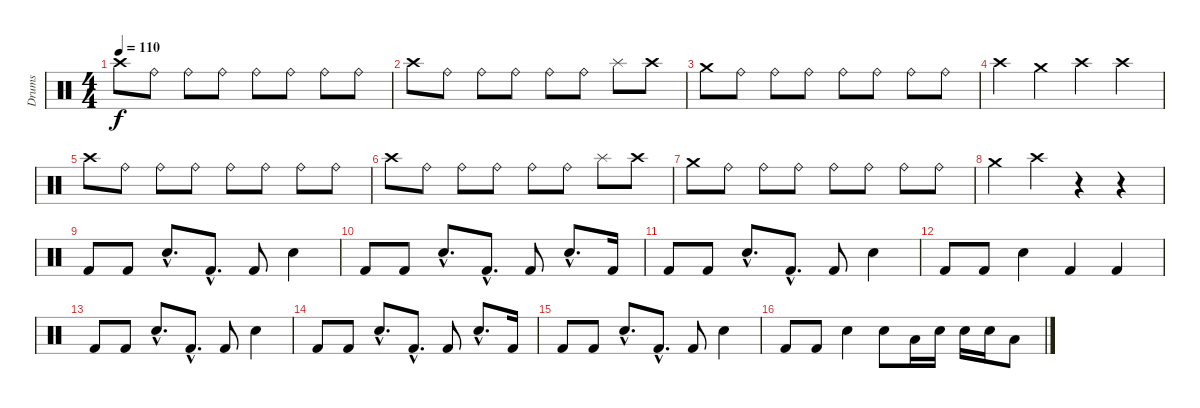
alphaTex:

\track ("Drums" "Drums") {instrument percussion}
\staff {score}
\articulation defaults
\ts (4 4)
\tempo 110
\clef neutral
\ks c "Crash high (hit)".8{dy f} "Ride (bell)".8 "Ride (bell)".8 "Ride (bell)".8 "Ride (bell)".8 "Ride (bell)".8 "Ride (bell)".8 "Ride (bell)".8
|
"Crash high (hit)".8 "Ride (bell)".8 "Ride (bell)".8 "Ride (bell)".8 "Ride (bell)".8 "Ride (bell)".8 "Splash (hit)".8 "Crash high (hit)".8 |
"Crash medium (hit)".8 "Ride (bell)".8 "Ride (bell)".8 "Ride (bell)".8 "Ride (bell)".8 "Ride (bell)".8 "Ride (bell)".8 "Ride (bell)".8 |
"Crash high (hit)".4 "Crash medium (hit)".4 "Crash high (hit)".4 "Crash high (hit)".4 |
"Crash high (hit)".8 "Ride (bell)".8 "Ride (bell)".8 "Ride (bell)".8 "Ride (bell)".8 "Ride (bell)".8 "Ride (bell)".8 "Ride (bell)".8 |
"Crash high (hit)".8 "Ride (bell)".8 "Ride (bell)".8 "Ride (bell)".8 "Ride (bell)".8 "Ride (bell)".8 "Splash (hit)".8 "Crash high (hit)".8 |
"Crash medium (hit)".8 "Ride (bell)".8 "Ride (bell)".8 "Ride (bell)".8 "Ride (bell)".8 "Ride (bell)".8 "Ride (bell)".8 "Ride (bell)".8 |
"Crash medium (hit)".4 "Crash high (hit)".4 r.4 r.4 |
"Kick (hit) 2".8 "Kick (hit) 2".8 "Electric Snare (hit)"{hac}.8{d} "Kick (hit) 2"{hac}.8{d} "Kick (hit) 2".8 "Electric Snare (hit)".4 |
"Kick (hit) 2".8 "Kick (hit) 2".8 "Electric Snare (hit)"{hac}.8{d} "Kick (hit) 2"{hac}.8{d} "Kick (hit) 2".8 "Electric Snare (hit)"{hac}.8{d} "Kick (hit) 2".16 |
"Kick (hit) 2".8 "Kick (hit) 2".8 "Electric Snare (hit)"{hac}.8{d} "Kick (hit) 2"{hac}.8{d} "Kick (hit) 2".8 "Electric Snare (hit)".4 |
"Kick (hit) 2".8 "Kick (hit) 2".8 "Electric Snare (hit)".4 "Kick (hit) 2".4 "Kick (hit) 2".4 |
"Kick (hit) 2".8 "Kick (hit) 2".8 "Electric Snare (hit)"{hac}.8{d} "Kick (hit) 2"{hac}.8{d} "Kick (hit) 2".8 "Electric Snare (hit)".4 |
"Kick (hit) 2".8 "Kick (hit) 2".8 "Electric Snare (hit)"{hac}.8{d} "Kick (hit) 2"{hac}.8{d} "Kick (hit) 2".8 "Electric Snare (hit)"{hac}.8{d} "Kick (hit) 2".16 |
"Kick (hit) 2".8 "Kick (hit) 2".8 "Electric Snare (hit)"{hac}.8{d} "Kick (hit) 2"{hac}.8{d} "Kick (hit) 2".8 "Electric Snare (hit)".4 |
"Kick (hit) 2".8 "Kick (hit) 2".8 "Electric Snare (hit)".4 "Electric Snare (hit)".8 "Low Tom (hit)".16 "Electric Snare (hit)".16 "Electric Snare (hit)".16 "Electric Snare (hit)".16 "Low Floor Tom (hit)".8
